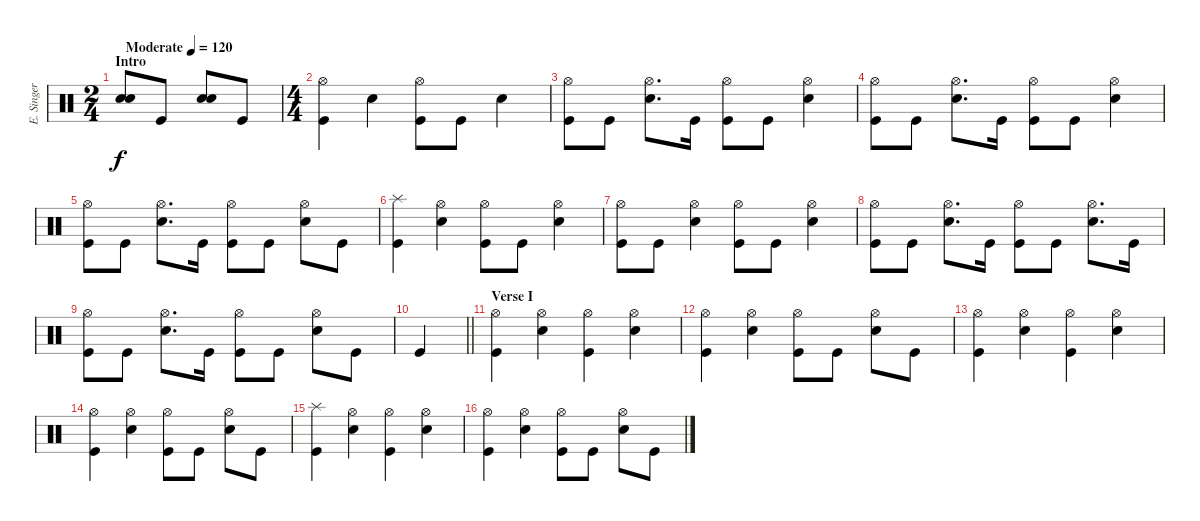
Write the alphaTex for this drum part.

\track ("E. Singer - Drums" "E. Singer ") {instrument percussion}
\staff {score}
\articulation defaults
\ts (2 4)
\section ("" "Intro")
\tempo (120 "Moderate")
\clef neutral
\ks c
("Snare (hit) 2" "Snare (hit) 2").8{dy f} "Kick (hit)".8 ("Snare (hit) 2" "Snare (hit) 2").8 "Kick (hit)".8 |
\ts (4 4)
("Kick (hit)" "Hi-Hat (open)").4 "Snare (hit) 2".4 ("Kick (hit)" "Hi-Hat (open)").8 "Kick (hit)".8 "Snare (hit) 2".4 |
("Kick (hit)" "Hi-Hat (open)").8 "Kick (hit)".8 ("Snare (hit) 2" "Hi-Hat (open)").8{d} "Kick (hit)".16 ("Kick (hit)" "Hi-Hat (open)").8 "Kick (hit)".8 ("Snare (hit) 2" "Hi-Hat (open)").4 |
("Kick (hit)" "Hi-Hat (open)").8 "Kick (hit)".8 ("Snare (hit) 2" "Hi-Hat (open)").8{d} "Kick (hit)".16 ("Kick (hit)" "Hi-Hat (open)").8 "Kick (hit)".8 ("Snare (hit) 2" "Hi-Hat (open)").4 |
("Kick (hit)" "Hi-Hat (open)").8 "Kick (hit)".8 ("Snare (hit) 2" "Hi-Hat (open)").8{d} "Kick (hit)".16 ("Kick (hit)" "Hi-Hat (open)").8 "Kick (hit)".8 ("Snare (hit) 2" "Hi-Hat (open)").8 "Kick (hit)".8 |
("Kick (hit)" "Splash (hit)").4 ("Snare (hit) 2" "Hi-Hat (open)").4 ("Kick (hit)" "Hi-Hat (open)").8 "Kick (hit)".8 ("Snare (hit) 2" "Hi-Hat (open)").4 |
("Kick (hit)" "Hi-Hat (open)").8 "Kick (hit)".8 ("Snare (hit) 2" "Hi-Hat (open)").4 ("Kick (hit)" "Hi-Hat (open)").8 "Kick (hit)".8 ("Snare (hit) 2" "Hi-Hat (open)").4 |
("Kick (hit)" "Hi-Hat (open)").8 "Kick (hit)".8 ("Snare (hit) 2" "Hi-Hat (open)").8{d} "Kick (hit)".16 ("Kick (hit)" "Hi-Hat (open)").8 "Kick (hit)".8 ("Snare (hit) 2" "Hi-Hat (open)").8{d} "Kick (hit)".16 |
("Kick (hit)" "Hi-Hat (open)").8 "Kick (hit)".8 ("Snare (hit) 2" "Hi-Hat (open)").8{d} "Kick (hit)".16 ("Kick (hit)" "Hi-Hat (open)").8 "Kick (hit)".8 ("Snare (hit) 2" "Hi-Hat (open)").8 "Kick (hit)".8 |
\barLineRight lightlight "Kick (hit)".4
|
\section ("" "Verse I")
("Kick (hit)" "Hi-Hat (open)").4 ("Snare (hit) 2" "Hi-Hat (open)").4 ("Kick (hit)" "Hi-Hat (open)").4 ("Snare (hit) 2" "Hi-Hat (open)").4 |
("Kick (hit)" "Hi-Hat (open)").4 ("Snare (hit) 2" "Hi-Hat (open)").4 ("Kick (hit)" "Hi-Hat (open)").8 "Kick (hit)".8 ("Snare (hit) 2" "Hi-Hat (open)").8 "Kick (hit)".8 |
("Kick (hit)" "Hi-Hat (open)").4 ("Snare (hit) 2" "Hi-Hat (open)").4 ("Kick (hit)" "Hi-Hat (open)").4 ("Snare (hit) 2" "Hi-Hat (open)").4 |
("Kick (hit)" "Hi-Hat (open)").4 ("Snare (hit) 2" "Hi-Hat (open)").4 ("Kick (hit)" "Hi-Hat (open)").8 "Kick (hit)".8 ("Snare (hit) 2" "Hi-Hat (open)").8 "Kick (hit)".8 |
("Kick (hit)" "Splash (hit)").4 ("Snare (hit) 2" "Hi-Hat (open)").4 ("Kick (hit)" "Hi-Hat (open)").4 ("Snare (hit) 2" "Hi-Hat (open)").4 |
("Kick (hit)" "Hi-Hat (open)").4 ("Snare (hit) 2" "Hi-Hat (open)").4 ("Kick (hit)" "Hi-Hat (open)").8 "Kick (hit)".8 ("Snare (hit) 2" "Hi-Hat (open)").8 "Kick (hit)".8
